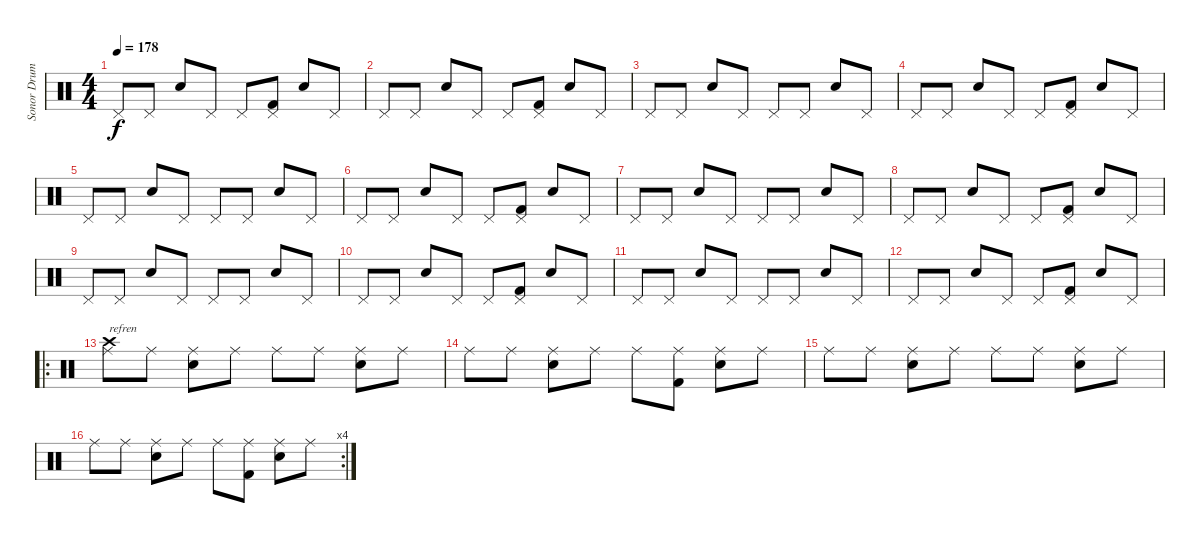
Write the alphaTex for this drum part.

\track ("Sonor Drum Kit " "Sonor Drum") {instrument percussion}
\staff {score}
\articulation defaults
\ts (4 4)
\tempo 178
\clef neutral
\ks c "Pedal Hi-Hat (hit)".8{dy f} "Pedal Hi-Hat (hit)".8 "Electric Snare (hit)".8 "Pedal Hi-Hat (hit)".8 "Pedal Hi-Hat (hit)".8
("Pedal Hi-Hat (hit)" "Kick (hit) 2").8 "Electric Snare (hit)".8 "Pedal Hi-Hat (hit)".8 |
"Pedal Hi-Hat (hit)".8 "Pedal Hi-Hat (hit)".8 "Electric Snare (hit)".8 "Pedal Hi-Hat (hit)".8 "Pedal Hi-Hat (hit)".8 ("Pedal Hi-Hat (hit)" "Kick (hit) 2").8 "Electric Snare (hit)".8 "Pedal Hi-Hat (hit)".8 |
"Pedal Hi-Hat (hit)".8 "Pedal Hi-Hat (hit)".8 "Electric Snare (hit)".8 "Pedal Hi-Hat (hit)".8 "Pedal Hi-Hat (hit)".8 "Pedal Hi-Hat (hit)".8 "Electric Snare (hit)".8 "Pedal Hi-Hat (hit)".8 |
"Pedal Hi-Hat (hit)".8 "Pedal Hi-Hat (hit)".8 "Electric Snare (hit)".8 "Pedal Hi-Hat (hit)".8 "Pedal Hi-Hat (hit)".8 ("Pedal Hi-Hat (hit)" "Kick (hit) 2").8 "Electric Snare (hit)".8 "Pedal Hi-Hat (hit)".8 |
"Pedal Hi-Hat (hit)".8 "Pedal Hi-Hat (hit)".8 "Electric Snare (hit)".8 "Pedal Hi-Hat (hit)".8 "Pedal Hi-Hat (hit)".8 "Pedal Hi-Hat (hit)".8 "Electric Snare (hit)".8 "Pedal Hi-Hat (hit)".8 |
"Pedal Hi-Hat (hit)".8 "Pedal Hi-Hat (hit)".8 "Electric Snare (hit)".8 "Pedal Hi-Hat (hit)".8 "Pedal Hi-Hat (hit)".8 ("Pedal Hi-Hat (hit)" "Kick (hit) 2").8 "Electric Snare (hit)".8 "Pedal Hi-Hat (hit)".8 |
"Pedal Hi-Hat (hit)".8 "Pedal Hi-Hat (hit)".8 "Electric Snare (hit)".8 "Pedal Hi-Hat (hit)".8 "Pedal Hi-Hat (hit)".8 "Pedal Hi-Hat (hit)".8 "Electric Snare (hit)".8 "Pedal Hi-Hat (hit)".8 |
"Pedal Hi-Hat (hit)".8 "Pedal Hi-Hat (hit)".8 "Electric Snare (hit)".8 "Pedal Hi-Hat (hit)".8 "Pedal Hi-Hat (hit)".8 ("Pedal Hi-Hat (hit)" "Kick (hit) 2").8 "Electric Snare (hit)".8 "Pedal Hi-Hat (hit)".8 |
"Pedal Hi-Hat (hit)".8 "Pedal Hi-Hat (hit)".8 "Electric Snare (hit)".8 "Pedal Hi-Hat (hit)".8 "Pedal Hi-Hat (hit)".8 "Pedal Hi-Hat (hit)".8 "Electric Snare (hit)".8 "Pedal Hi-Hat (hit)".8 |
"Pedal Hi-Hat (hit)".8 "Pedal Hi-Hat (hit)".8 "Electric Snare (hit)".8 "Pedal Hi-Hat (hit)".8 "Pedal Hi-Hat (hit)".8 ("Pedal Hi-Hat (hit)" "Kick (hit) 2").8 "Electric Snare (hit)".8 "Pedal Hi-Hat (hit)".8 |
"Pedal Hi-Hat (hit)".8 "Pedal Hi-Hat (hit)".8 "Electric Snare (hit)".8 "Pedal Hi-Hat (hit)".8 "Pedal Hi-Hat (hit)".8 "Pedal Hi-Hat (hit)".8 "Electric Snare (hit)".8 "Pedal Hi-Hat (hit)".8 |
"Pedal Hi-Hat (hit)".8 "Pedal Hi-Hat (hit)".8 "Electric Snare (hit)".8 "Pedal Hi-Hat (hit)".8 "Pedal Hi-Hat (hit)".8 ("Pedal Hi-Hat (hit)" "Kick (hit) 2").8 "Electric Snare (hit)".8 "Pedal Hi-Hat (hit)".8 |
\ro
("Ride (middle)" "Crash high (hit)").8{txt "refren"} "Ride (middle)".8 ("Ride (middle)" "Electric Snare (hit)").8 "Ride (middle)".8 "Ride (middle)".8 "Ride (middle)".8 ("Ride (middle)" "Electric Snare (hit)").8 "Ride (middle)".8 |
"Ride (middle)".8 "Ride (middle)".8 ("Ride (middle)" "Electric Snare (hit)").8 "Ride (middle)".8 "Ride (middle)".8 ("Ride (middle)" "Kick (hit) 2").8 ("Ride (middle)" "Electric Snare (hit)").8 "Ride (middle)".8 |
"Ride (middle)".8 "Ride (middle)".8 ("Ride (middle)" "Electric Snare (hit)").8 "Ride (middle)".8 "Ride (middle)".8 "Ride (middle)".8 ("Ride (middle)" "Electric Snare (hit)").8 "Ride (middle)".8 |
\rc 4 "Ride (middle)".8 "Ride (middle)".8
("Ride (middle)" "Electric Snare (hit)").8 "Ride (middle)".8 "Ride (middle)".8 ("Ride (middle)" "Kick (hit) 2").8 ("Ride (middle)" "Electric Snare (hit)").8 "Ride (middle)".8
